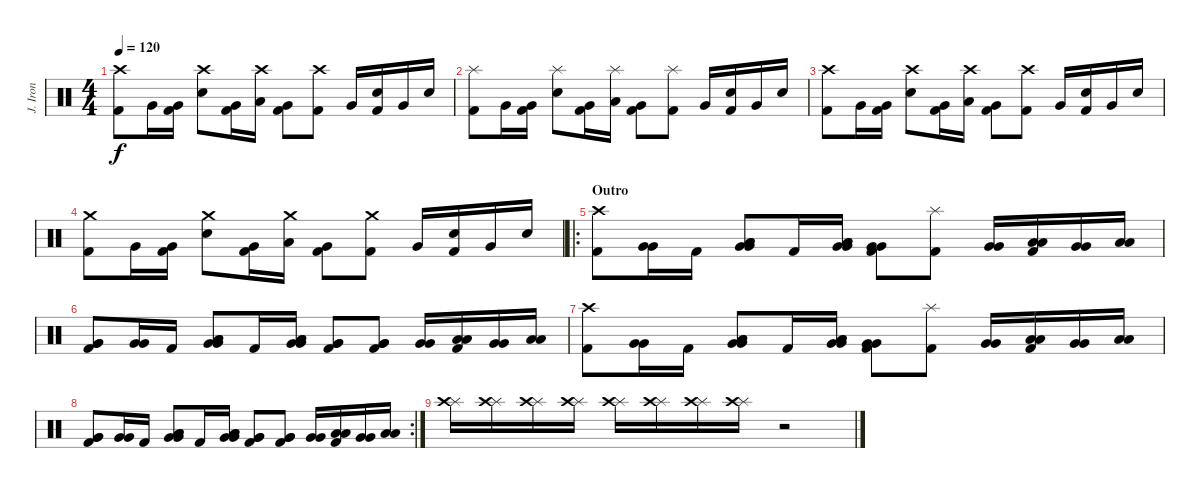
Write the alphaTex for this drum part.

\track ("J. Iron" "J. Iron") {instrument percussion}
\staff {score}
\articulation defaults
\ts (4 4)
\tempo 120
\clef neutral
\ks c
("Crash high (hit)" "Kick (hit) 2").8{dy f} "Very Low Tom (hit)".16 ("Very Low Tom (hit)" "Kick (hit) 2").16 ("Crash high (hit)" "Snare (hit) 2").8 ("Very Low Tom (hit)" "Kick (hit) 2").16 ("Crash high (hit)" "Low Tom (hit)").16 ("Very Low Tom (hit)" "Kick (hit) 2").8 ("Crash high (hit)" "Kick (hit) 2").8 "Very Low Tom (hit)".16 ("Snare (hit) 2" "Kick (hit) 2").16 "Very Low Tom (hit)".16 "Snare (hit) 2".16 |
("Splash (hit)" "Kick (hit) 2").8 "Very Low Tom (hit)".16 ("Very Low Tom (hit)" "Kick (hit) 2").16 ("Splash (hit)" "Snare (hit) 2").8 ("Very Low Tom (hit)" "Kick (hit) 2").16 ("Splash (hit)" "Low Tom (hit)").16 ("Very Low Tom (hit)" "Kick (hit) 2").8 ("Splash (hit)" "Kick (hit) 2").8 "Very Low Tom (hit)".16 ("Snare (hit) 2" "Kick (hit) 2").16 "Very Low Tom (hit)".16 "Snare (hit) 2".16 |
("Crash high (hit)" "Kick (hit) 2").8 "Very Low Tom (hit)".16 ("Very Low Tom (hit)" "Kick (hit) 2").16 ("Crash high (hit)" "Snare (hit) 2").8 ("Very Low Tom (hit)" "Kick (hit) 2").16 ("Crash high (hit)" "Low Tom (hit)").16 ("Very Low Tom (hit)" "Kick (hit) 2").8 ("Crash high (hit)" "Kick (hit) 2").8 "Very Low Tom (hit)".16 ("Snare (hit) 2" "Kick (hit) 2").16 "Very Low Tom (hit)".16 "Snare (hit) 2".16 |
("Crash medium (hit)" "Kick (hit) 2").8 "Very Low Tom (hit)".16 ("Very Low Tom (hit)" "Kick (hit) 2").16 ("Crash medium (hit)" "Snare (hit) 2").8 ("Very Low Tom (hit)" "Kick (hit) 2").16 ("Crash medium (hit)" "Low Tom (hit)").16 ("Very Low Tom (hit)" "Kick (hit) 2").8 ("Crash medium (hit)" "Kick (hit) 2").8 "Very Low Tom (hit)".16 ("Snare (hit) 2" "Kick (hit) 2").16 "Very Low Tom (hit)".16 "Snare (hit) 2".16 |
\ro
\section ("" "Outro")
("Crash high (hit)" "Kick (hit) 2").8 ("Very Low Tom (hit)" "Very Low Tom (hit)").16 "Kick (hit) 2".16 ("Low Tom (hit)" "Very Low Tom (hit)" "Very Low Tom (hit)" "Low Tom (hit)").8 "Kick (hit) 2".16 ("Low Tom (hit)" "Very Low Tom (hit)" "Very Low Tom (hit)" "Low Tom (hit)").16 ("Very Low Tom (hit)" "Very Low Tom (hit)" "Kick (hit) 2").8 ("Splash (hit)" "Kick (hit) 2").8 ("Very Low Tom (hit)" "Very Low Tom (hit)").16 ("Low Tom (hit)" "Low Tom (hit)" "Kick (hit) 2").16 ("Very Low Tom (hit)" "Very Low Tom (hit)").16 ("Low Tom (hit)" "Low Tom (hit)").16 |
("Very Low Tom (hit)" "Very Low Tom (hit)" "Kick (hit) 2").8 ("Very Low Tom (hit)" "Very Low Tom (hit)").16 "Kick (hit) 2".16 ("Low Tom (hit)" "Very Low Tom (hit)" "Very Low Tom (hit)" "Low Tom (hit)").8 "Kick (hit) 2".16 ("Low Tom (hit)" "Very Low Tom (hit)" "Very Low Tom (hit)" "Low Tom (hit)").16 ("Very Low Tom (hit)" "Very Low Tom (hit)" "Kick (hit) 2").8 ("Very Low Tom (hit)" "Very Low Tom (hit)" "Kick (hit) 2").8 ("Very Low Tom (hit)" "Very Low Tom (hit)").16 ("Low Tom (hit)" "Low Tom (hit)" "Kick (hit) 2").16 ("Very Low Tom (hit)" "Very Low Tom (hit)").16 ("Low Tom (hit)" "Low Tom (hit)").16 |
("Crash high (hit)" "Kick (hit) 2").8 ("Very Low Tom (hit)" "Very Low Tom (hit)").16 "Kick (hit) 2".16 ("Low Tom (hit)" "Very Low Tom (hit)" "Very Low Tom (hit)" "Low Tom (hit)").8 "Kick (hit) 2".16 ("Low Tom (hit)" "Very Low Tom (hit)" "Very Low Tom (hit)" "Low Tom (hit)").16 ("Very Low Tom (hit)" "Very Low Tom (hit)" "Kick (hit) 2").8 ("Splash (hit)" "Kick (hit) 2").8 ("Very Low Tom (hit)" "Very Low Tom (hit)").16 ("Low Tom (hit)" "Low Tom (hit)" "Kick (hit) 2").16 ("Very Low Tom (hit)" "Very Low Tom (hit)").16 ("Low Tom (hit)" "Low Tom (hit)").16 |
\rc 2
("Very Low Tom (hit)" "Very Low Tom (hit)" "Kick (hit) 2").8 ("Very Low Tom (hit)" "Very Low Tom (hit)").16 "Kick (hit) 2".16 ("Low Tom (hit)" "Very Low Tom (hit)" "Very Low Tom (hit)" "Low Tom (hit)").8 "Kick (hit) 2".16 ("Low Tom (hit)" "Very Low Tom (hit)" "Very Low Tom (hit)" "Low Tom (hit)").16 ("Very Low Tom (hit)" "Very Low Tom (hit)" "Kick (hit) 2").8 ("Very Low Tom (hit)" "Very Low Tom (hit)" "Kick (hit) 2").8 ("Very Low Tom (hit)" "Very Low Tom (hit)").16 ("Low Tom (hit)" "Low Tom (hit)" "Kick (hit) 2").16 ("Very Low Tom (hit)" "Very Low Tom (hit)").16 ("Low Tom (hit)" "Low Tom (hit)").16 |
("Splash (hit)" "Crash high (hit)").16 ("Splash (hit)" "Crash high (hit)").16 ("Splash (hit)" "Crash high (hit)").16 ("Splash (hit)" "Crash high (hit)").16 ("Splash (hit)" "Crash high (hit)").16 ("Splash (hit)" "Crash high (hit)").16 ("Splash (hit)" "Crash high (hit)").16 ("Splash (hit)" "Crash high (hit)").16 r.2
